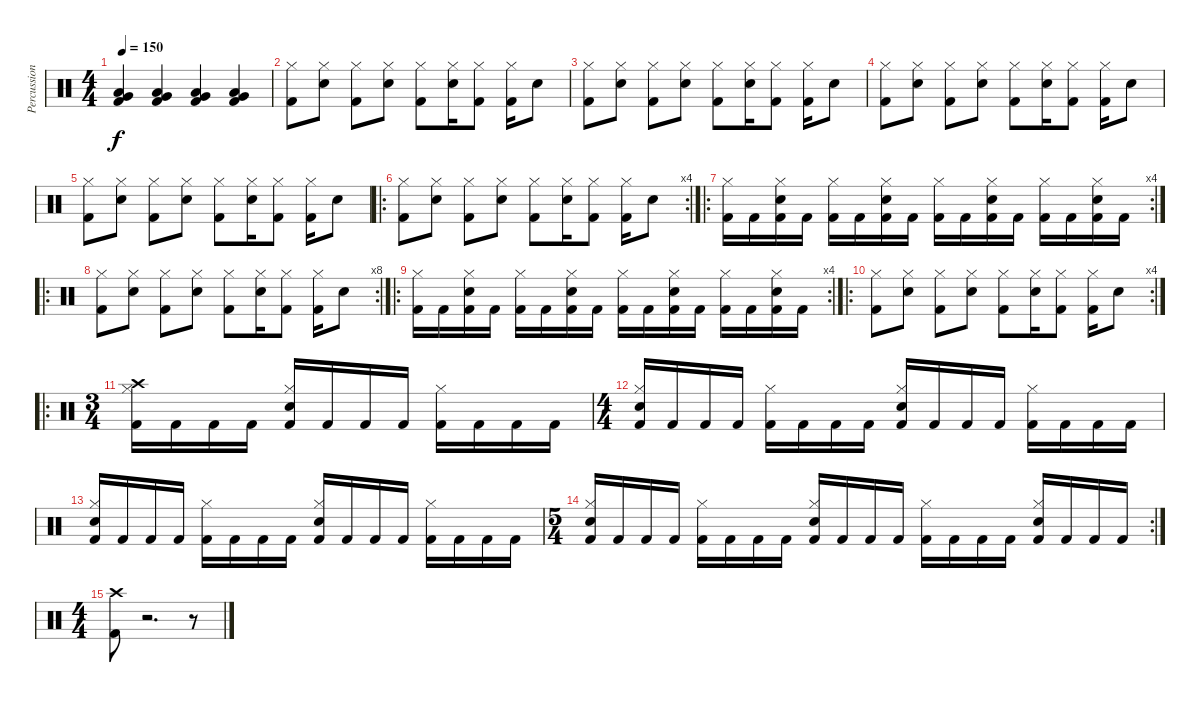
\track ("Percussion" "Percussion") {instrument percussion}
\staff {score}
\articulation defaults
\ts (4 4)
\tempo 150
\clef neutral
\ks c
("Kick (hit) 2" "Very Low Tom (hit)" "Low Floor Tom (hit)").4{dy f} ("Kick (hit) 2" "Very Low Tom (hit)" "Low Floor Tom (hit)").4 ("Kick (hit) 2" "Very Low Tom (hit)" "Low Floor Tom (hit)").4 ("Kick (hit) 2" "Very Low Tom (hit)" "Low Floor Tom (hit)").4 |
("Kick (hit) 2" "Hi-Hat (closed)").8 ("Snare (hit) 2" "Hi-Hat (closed)").8 ("Kick (hit) 2" "Hi-Hat (closed)").8 ("Snare (hit) 2" "Hi-Hat (closed)").8 ("Kick (hit) 2" "Hi-Hat (closed)").8 ("Snare (hit) 2" "Hi-Hat (closed)").16 ("Kick (hit) 2" "Hi-Hat (closed)").8 ("Kick (hit) 2" "Hi-Hat (closed)").16 "Snare (hit) 2".8 |
("Kick (hit) 2" "Hi-Hat (closed)").8 ("Snare (hit) 2" "Hi-Hat (closed)").8 ("Kick (hit) 2" "Hi-Hat (closed)").8 ("Snare (hit) 2" "Hi-Hat (closed)").8 ("Kick (hit) 2" "Hi-Hat (closed)").8 ("Snare (hit) 2" "Hi-Hat (closed)").16 ("Kick (hit) 2" "Hi-Hat (closed)").8 ("Kick (hit) 2" "Hi-Hat (closed)").16 "Snare (hit) 2".8 |
("Kick (hit) 2" "Hi-Hat (closed)").8 ("Snare (hit) 2" "Hi-Hat (closed)").8 ("Kick (hit) 2" "Hi-Hat (closed)").8 ("Snare (hit) 2" "Hi-Hat (closed)").8 ("Kick (hit) 2" "Hi-Hat (closed)").8 ("Snare (hit) 2" "Hi-Hat (closed)").16 ("Kick (hit) 2" "Hi-Hat (closed)").8 ("Kick (hit) 2" "Hi-Hat (closed)").16 "Snare (hit) 2".8 |
("Kick (hit) 2" "Hi-Hat (closed)").8 ("Snare (hit) 2" "Hi-Hat (closed)").8 ("Kick (hit) 2" "Hi-Hat (closed)").8 ("Snare (hit) 2" "Hi-Hat (closed)").8 ("Kick (hit) 2" "Hi-Hat (closed)").8 ("Snare (hit) 2" "Hi-Hat (closed)").16 ("Kick (hit) 2" "Hi-Hat (closed)").8 ("Kick (hit) 2" "Hi-Hat (closed)").16 "Snare (hit) 2".8 |
\ro
\rc 4
("Kick (hit) 2" "Hi-Hat (closed)").8 ("Snare (hit) 2" "Hi-Hat (closed)").8 ("Kick (hit) 2" "Hi-Hat (closed)").8 ("Snare (hit) 2" "Hi-Hat (closed)").8 ("Kick (hit) 2" "Hi-Hat (closed)").8 ("Snare (hit) 2" "Hi-Hat (closed)").16 ("Kick (hit) 2" "Hi-Hat (closed)").8 ("Kick (hit) 2" "Hi-Hat (closed)").16 "Snare (hit) 2".8 |
\ro
\rc 4
("Kick (hit) 2" "Hi-Hat (closed)").16 "Kick (hit) 2".16 ("Kick (hit) 2" "Hi-Hat (closed)" "Snare (hit) 2").16 "Kick (hit) 2".16 ("Kick (hit) 2" "Hi-Hat (closed)").16 "Kick (hit) 2".16 ("Kick (hit) 2" "Hi-Hat (closed)" "Snare (hit) 2").16 "Kick (hit) 2".16 ("Kick (hit) 2" "Hi-Hat (closed)").16 "Kick (hit) 2".16 ("Kick (hit) 2" "Hi-Hat (closed)" "Snare (hit) 2").16 "Kick (hit) 2".16 ("Kick (hit) 2" "Hi-Hat (closed)").16 "Kick (hit) 2".16 ("Kick (hit) 2" "Hi-Hat (closed)" "Snare (hit) 2").16 "Kick (hit) 2".16 |
\ro
\rc 8
("Kick (hit) 2" "Hi-Hat (closed)").8 ("Snare (hit) 2" "Hi-Hat (closed)").8 ("Kick (hit) 2" "Hi-Hat (closed)").8 ("Snare (hit) 2" "Hi-Hat (closed)").8 ("Kick (hit) 2" "Hi-Hat (closed)").8 ("Snare (hit) 2" "Hi-Hat (closed)").16 ("Kick (hit) 2" "Hi-Hat (closed)").8 ("Kick (hit) 2" "Hi-Hat (closed)").16 "Snare (hit) 2".8 |
\ro
\rc 4
("Kick (hit) 2" "Hi-Hat (closed)").16 "Kick (hit) 2".16 ("Kick (hit) 2" "Hi-Hat (closed)" "Snare (hit) 2").16 "Kick (hit) 2".16 ("Kick (hit) 2" "Hi-Hat (closed)").16 "Kick (hit) 2".16 ("Kick (hit) 2" "Hi-Hat (closed)" "Snare (hit) 2").16 "Kick (hit) 2".16 ("Kick (hit) 2" "Hi-Hat (closed)").16 "Kick (hit) 2".16 ("Kick (hit) 2" "Hi-Hat (closed)" "Snare (hit) 2").16 "Kick (hit) 2".16 ("Kick (hit) 2" "Hi-Hat (closed)").16 "Kick (hit) 2".16 ("Kick (hit) 2" "Hi-Hat (closed)" "Snare (hit) 2").16 "Kick (hit) 2".16 |
\ro
\rc 4
("Kick (hit) 2" "Hi-Hat (closed)").8 ("Snare (hit) 2" "Hi-Hat (closed)").8 ("Kick (hit) 2" "Hi-Hat (closed)").8 ("Snare (hit) 2" "Hi-Hat (closed)").8 ("Kick (hit) 2" "Hi-Hat (closed)").8 ("Snare (hit) 2" "Hi-Hat (closed)").16 ("Kick (hit) 2" "Hi-Hat (closed)").8 ("Kick (hit) 2" "Hi-Hat (closed)").16 "Snare (hit) 2".8 |
\ro
\ts (3 4)
("Kick (hit) 2" "Hi-Hat (closed)" "Crash high (hit)").16 "Kick (hit) 2".16 "Kick (hit) 2".16 "Kick (hit) 2".16 ("Kick (hit) 2" "Hi-Hat (closed)" "Snare (hit) 2").16 "Kick (hit) 2".16 "Kick (hit) 2".16 "Kick (hit) 2".16 ("Kick (hit) 2" "Hi-Hat (closed)").16 "Kick (hit) 2".16 "Kick (hit) 2".16 "Kick (hit) 2".16 |
\ts (4 4)
("Kick (hit) 2" "Hi-Hat (closed)" "Snare (hit) 2").16 "Kick (hit) 2".16 "Kick (hit) 2".16 "Kick (hit) 2".16 ("Kick (hit) 2" "Hi-Hat (closed)").16 "Kick (hit) 2".16 "Kick (hit) 2".16 "Kick (hit) 2".16 ("Kick (hit) 2" "Hi-Hat (closed)" "Snare (hit) 2").16 "Kick (hit) 2".16 "Kick (hit) 2".16 "Kick (hit) 2".16 ("Kick (hit) 2" "Hi-Hat (closed)").16 "Kick (hit) 2".16 "Kick (hit) 2".16 "Kick (hit) 2".16 |
("Kick (hit) 2" "Hi-Hat (closed)" "Snare (hit) 2").16 "Kick (hit) 2".16 "Kick (hit) 2".16 "Kick (hit) 2".16 ("Kick (hit) 2" "Hi-Hat (closed)").16 "Kick (hit) 2".16 "Kick (hit) 2".16 "Kick (hit) 2".16 ("Kick (hit) 2" "Hi-Hat (closed)" "Snare (hit) 2").16 "Kick (hit) 2".16 "Kick (hit) 2".16 "Kick (hit) 2".16 ("Kick (hit) 2" "Hi-Hat (closed)").16 "Kick (hit) 2".16 "Kick (hit) 2".16 "Kick (hit) 2".16 |
\rc 2
\ts (5 4)
("Kick (hit) 2" "Hi-Hat (closed)" "Snare (hit) 2").16 "Kick (hit) 2".16 "Kick (hit) 2".16 "Kick (hit) 2".16 ("Kick (hit) 2" "Hi-Hat (closed)").16 "Kick (hit) 2".16 "Kick (hit) 2".16 "Kick (hit) 2".16 ("Kick (hit) 2" "Hi-Hat (closed)" "Snare (hit) 2").16 "Kick (hit) 2".16 "Kick (hit) 2".16 "Kick (hit) 2".16 ("Kick (hit) 2" "Hi-Hat (closed)").16 "Kick (hit) 2".16 "Kick (hit) 2".16 "Kick (hit) 2".16 ("Kick (hit) 2" "Hi-Hat (closed)" "Snare (hit) 2").16 "Kick (hit) 2".16 "Kick (hit) 2".16 "Kick (hit) 2".16 |
\ts (4 4)
("Kick (hit) 2" "Crash high (hit)").8 r.2{d} r.8
